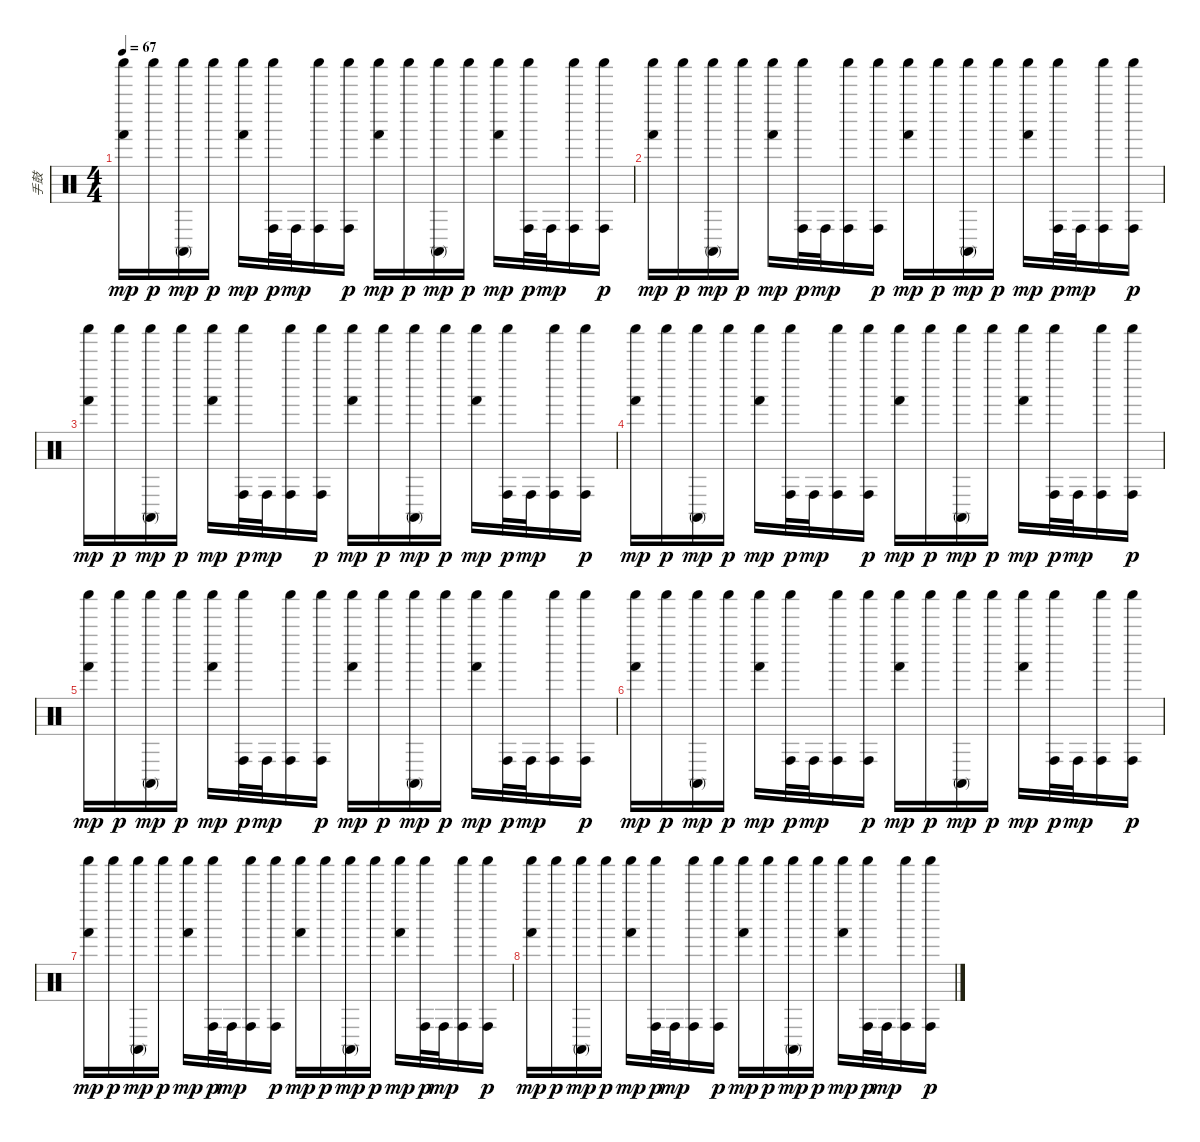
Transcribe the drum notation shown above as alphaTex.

\track ("手鼓" "手鼓") {instrument percussion}
\staff {score}
\articulation defaults
\ts (4 4)
\tempo 67
\clef neutral
\ks c
("Hand (hit)" "Shaker (hit)").16{dy mp} "Shaker (hit)".16{dy p} ("Conga high (mute)" "Shaker (hit)").16{dy mp} "Shaker (hit)".16{dy p} ("Hand (hit)" "Shaker (hit)").16{dy mp} ("Conga high (hit)" "Shaker (hit)").32{dy p} "Conga high (hit)".32{dy mp} ("Conga high (hit)" "Shaker (hit)").16 ("Conga high (hit)" "Shaker (hit)").16{dy p} ("Hand (hit)" "Shaker (hit)").16{dy mp} "Shaker (hit)".16{dy p} ("Conga high (mute)" "Shaker (hit)").16{dy mp} "Shaker (hit)".16{dy p} ("Hand (hit)" "Shaker (hit)").16{dy mp} ("Conga high (hit)" "Shaker (hit)").32{dy p} "Conga high (hit)".32{dy mp} ("Conga high (hit)" "Shaker (hit)").16 ("Conga high (hit)" "Shaker (hit)").16{dy p} |
("Hand (hit)" "Shaker (hit)").16{dy mp} "Shaker (hit)".16{dy p} ("Conga high (mute)" "Shaker (hit)").16{dy mp} "Shaker (hit)".16{dy p} ("Hand (hit)" "Shaker (hit)").16{dy mp} ("Conga high (hit)" "Shaker (hit)").32{dy p} "Conga high (hit)".32{dy mp} ("Conga high (hit)" "Shaker (hit)").16 ("Conga high (hit)" "Shaker (hit)").16{dy p} ("Hand (hit)" "Shaker (hit)").16{dy mp} "Shaker (hit)".16{dy p} ("Conga high (mute)" "Shaker (hit)").16{dy mp} "Shaker (hit)".16{dy p} ("Hand (hit)" "Shaker (hit)").16{dy mp} ("Conga high (hit)" "Shaker (hit)").32{dy p} "Conga high (hit)".32{dy mp} ("Conga high (hit)" "Shaker (hit)").16 ("Conga high (hit)" "Shaker (hit)").16{dy p} |
("Hand (hit)" "Shaker (hit)").16{dy mp} "Shaker (hit)".16{dy p} ("Conga high (mute)" "Shaker (hit)").16{dy mp} "Shaker (hit)".16{dy p} ("Hand (hit)" "Shaker (hit)").16{dy mp} ("Conga high (hit)" "Shaker (hit)").32{dy p} "Conga high (hit)".32{dy mp} ("Conga high (hit)" "Shaker (hit)").16 ("Conga high (hit)" "Shaker (hit)").16{dy p} ("Hand (hit)" "Shaker (hit)").16{dy mp} "Shaker (hit)".16{dy p} ("Conga high (mute)" "Shaker (hit)").16{dy mp} "Shaker (hit)".16{dy p} ("Hand (hit)" "Shaker (hit)").16{dy mp} ("Conga high (hit)" "Shaker (hit)").32{dy p} "Conga high (hit)".32{dy mp} ("Conga high (hit)" "Shaker (hit)").16 ("Conga high (hit)" "Shaker (hit)").16{dy p} |
("Hand (hit)" "Shaker (hit)").16{dy mp} "Shaker (hit)".16{dy p} ("Conga high (mute)" "Shaker (hit)").16{dy mp} "Shaker (hit)".16{dy p} ("Hand (hit)" "Shaker (hit)").16{dy mp} ("Conga high (hit)" "Shaker (hit)").32{dy p} "Conga high (hit)".32{dy mp} ("Conga high (hit)" "Shaker (hit)").16 ("Conga high (hit)" "Shaker (hit)").16{dy p} ("Hand (hit)" "Shaker (hit)").16{dy mp} "Shaker (hit)".16{dy p} ("Conga high (mute)" "Shaker (hit)").16{dy mp} "Shaker (hit)".16{dy p} ("Hand (hit)" "Shaker (hit)").16{dy mp} ("Conga high (hit)" "Shaker (hit)").32{dy p} "Conga high (hit)".32{dy mp} ("Conga high (hit)" "Shaker (hit)").16 ("Conga high (hit)" "Shaker (hit)").16{dy p} |
("Hand (hit)" "Shaker (hit)").16{dy mp} "Shaker (hit)".16{dy p} ("Conga high (mute)" "Shaker (hit)").16{dy mp} "Shaker (hit)".16{dy p} ("Hand (hit)" "Shaker (hit)").16{dy mp} ("Conga high (hit)" "Shaker (hit)").32{dy p} "Conga high (hit)".32{dy mp} ("Conga high (hit)" "Shaker (hit)").16 ("Conga high (hit)" "Shaker (hit)").16{dy p} ("Hand (hit)" "Shaker (hit)").16{dy mp} "Shaker (hit)".16{dy p} ("Conga high (mute)" "Shaker (hit)").16{dy mp} "Shaker (hit)".16{dy p} ("Hand (hit)" "Shaker (hit)").16{dy mp} ("Conga high (hit)" "Shaker (hit)").32{dy p} "Conga high (hit)".32{dy mp} ("Conga high (hit)" "Shaker (hit)").16 ("Conga high (hit)" "Shaker (hit)").16{dy p} |
("Hand (hit)" "Shaker (hit)").16{dy mp} "Shaker (hit)".16{dy p} ("Conga high (mute)" "Shaker (hit)").16{dy mp} "Shaker (hit)".16{dy p} ("Hand (hit)" "Shaker (hit)").16{dy mp} ("Conga high (hit)" "Shaker (hit)").32{dy p} "Conga high (hit)".32{dy mp} ("Conga high (hit)" "Shaker (hit)").16 ("Conga high (hit)" "Shaker (hit)").16{dy p} ("Hand (hit)" "Shaker (hit)").16{dy mp} "Shaker (hit)".16{dy p} ("Conga high (mute)" "Shaker (hit)").16{dy mp} "Shaker (hit)".16{dy p} ("Hand (hit)" "Shaker (hit)").16{dy mp} ("Conga high (hit)" "Shaker (hit)").32{dy p} "Conga high (hit)".32{dy mp} ("Conga high (hit)" "Shaker (hit)").16 ("Conga high (hit)" "Shaker (hit)").16{dy p} |
("Hand (hit)" "Shaker (hit)").16{dy mp} "Shaker (hit)".16{dy p} ("Conga high (mute)" "Shaker (hit)").16{dy mp} "Shaker (hit)".16{dy p} ("Hand (hit)" "Shaker (hit)").16{dy mp} ("Conga high (hit)" "Shaker (hit)").32{dy p} "Conga high (hit)".32{dy mp} ("Conga high (hit)" "Shaker (hit)").16 ("Conga high (hit)" "Shaker (hit)").16{dy p} ("Hand (hit)" "Shaker (hit)").16{dy mp} "Shaker (hit)".16{dy p} ("Conga high (mute)" "Shaker (hit)").16{dy mp} "Shaker (hit)".16{dy p} ("Hand (hit)" "Shaker (hit)").16{dy mp} ("Conga high (hit)" "Shaker (hit)").32{dy p} "Conga high (hit)".32{dy mp} ("Conga high (hit)" "Shaker (hit)").16 ("Conga high (hit)" "Shaker (hit)").16{dy p} |
("Hand (hit)" "Shaker (hit)").16{dy mp} "Shaker (hit)".16{dy p} ("Conga high (mute)" "Shaker (hit)").16{dy mp} "Shaker (hit)".16{dy p} ("Hand (hit)" "Shaker (hit)").16{dy mp} ("Conga high (hit)" "Shaker (hit)").32{dy p} "Conga high (hit)".32{dy mp} ("Conga high (hit)" "Shaker (hit)").16 ("Conga high (hit)" "Shaker (hit)").16{dy p} ("Hand (hit)" "Shaker (hit)").16{dy mp} "Shaker (hit)".16{dy p} ("Conga high (mute)" "Shaker (hit)").16{dy mp} "Shaker (hit)".16{dy p} ("Hand (hit)" "Shaker (hit)").16{dy mp} ("Conga high (hit)" "Shaker (hit)").32{dy p} "Conga high (hit)".32{dy mp} ("Conga high (hit)" "Shaker (hit)").16 ("Conga high (hit)" "Shaker (hit)").16{dy p}
